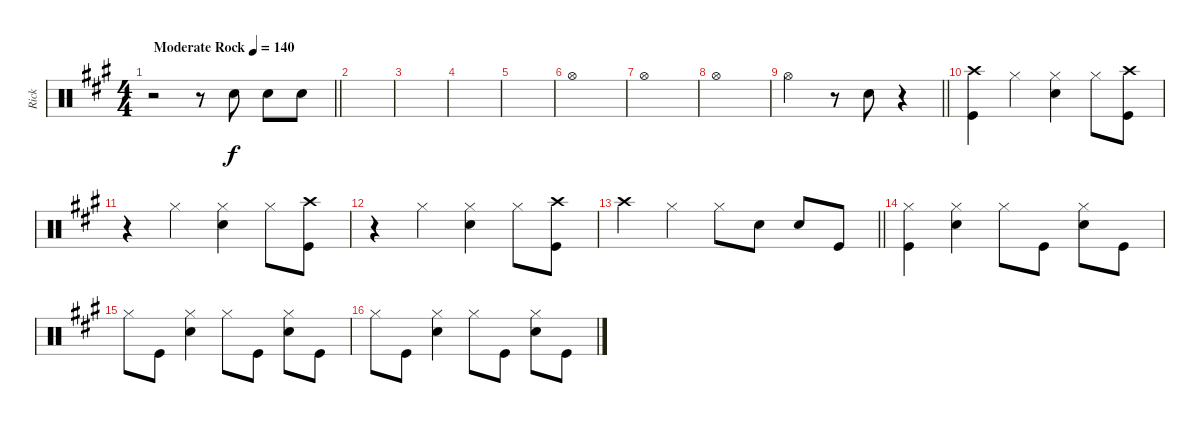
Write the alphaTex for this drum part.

\track ("Rick" "Rick") {instrument percussion}
\staff {score}
\articulation defaults
\ts (4 4)
\tempo (140 "Moderate Rock")
\clef neutral
\barLineRight lightlight
\ks a
r.2{dy f} r.8 "Snare (hit) 2".8 "Snare (hit) 2".8 "Snare (hit) 2".8 |
|
|
|
|
"Hi-Hat (open)".1 |
"Hi-Hat (open)".1 |
"Hi-Hat (open)".1 |
\barLineRight lightlight "Hi-Hat (open)".2
r.8 "Snare (hit) 2".8 r.4 |
("Crash high (hit)" "Kick (hit)").4 "Hi-Hat (closed)".4 ("Hi-Hat (closed)" "Snare (hit) 2").4 "Hi-Hat (closed)".8 ("Crash high (hit)" "Kick (hit)").8 |
r.4 "Hi-Hat (closed)".4 ("Hi-Hat (closed)" "Snare (hit) 2").4 "Hi-Hat (closed)".8 ("Crash high (hit)" "Kick (hit)").8 |
r.4 "Hi-Hat (closed)".4 ("Hi-Hat (closed)" "Snare (hit) 2").4 "Hi-Hat (closed)".8 ("Crash high (hit)" "Kick (hit)").8 |
\barLineRight lightlight "Crash high (hit)".4 "Hi-Hat (closed)".4 "Hi-Hat (closed)".8 "Snare (hit) 2".8 "Snare (hit) 2".8 "Kick (hit)".8
|
("Hi-Hat (closed)" "Kick (hit)").4 ("Hi-Hat (closed)" "Snare (hit) 2").4 "Hi-Hat (closed)".8 "Kick (hit)".8 ("Hi-Hat (closed)" "Snare (hit) 2").8 "Kick (hit)".8 |
"Hi-Hat (closed)".8 "Kick (hit)".8 ("Hi-Hat (closed)" "Snare (hit) 2").4 "Hi-Hat (closed)".8 "Kick (hit)".8 ("Hi-Hat (closed)" "Snare (hit) 2").8 "Kick (hit)".8 |
"Hi-Hat (closed)".8 "Kick (hit)".8 ("Hi-Hat (closed)" "Snare (hit) 2").4 "Hi-Hat (closed)".8 "Kick (hit)".8 ("Hi-Hat (closed)" "Snare (hit) 2").8 "Kick (hit)".8
